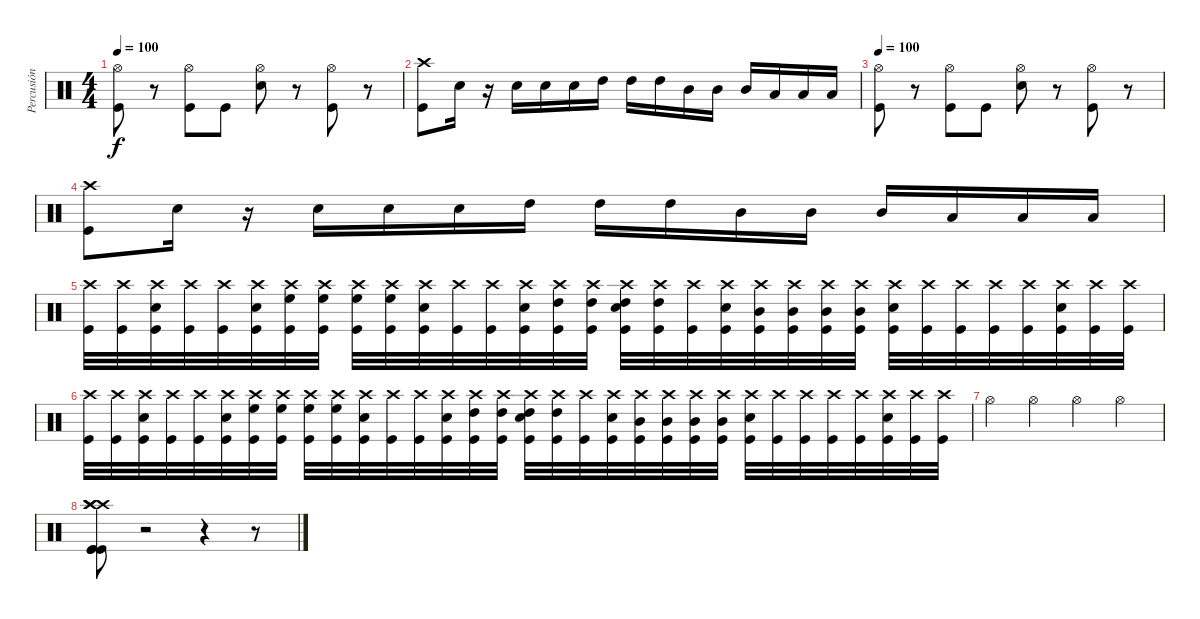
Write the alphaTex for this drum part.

\track ("Percusión" "Percusión") {instrument percussion}
\staff {score}
\articulation defaults
\ts (4 4)
\tempo 100
\clef neutral
\ks c
("Hi-Hat (open)" "Kick (hit)").8{dy f} r.8 ("Hi-Hat (open)" "Kick (hit)").8 "Kick (hit)".8 ("Hi-Hat (open)" "Snare (hit) 2").8 r.8 ("Hi-Hat (open)" "Kick (hit)").8 r.8 |
("Crash high (hit)" "Kick (hit)").8 "Snare (hit) 2".16 r.16 "Snare (hit) 2".16 "Snare (hit) 2".16 "Snare (hit) 2".16 "High Tom (hit)".16 "High Tom (hit)".16 "High Tom (hit)".16 "Mid Tom (hit)".16 "Mid Tom (hit)".16 "Mid Tom (hit)".16 "Low Tom (hit)".16 "Low Tom (hit)".16 "Low Tom (hit)".16 |
\tempo 100
("Hi-Hat (open)" "Kick (hit)").8 r.8 ("Hi-Hat (open)" "Kick (hit)").8 "Kick (hit)".8 ("Hi-Hat (open)" "Snare (hit) 2").8 r.8 ("Hi-Hat (open)" "Kick (hit)").8 r.8 |
("Crash high (hit)" "Kick (hit)").8 "Snare (hit) 2".16 r.16 "Snare (hit) 2".16 "Snare (hit) 2".16 "Snare (hit) 2".16 "High Tom (hit)".16 "High Tom (hit)".16 "High Tom (hit)".16 "Mid Tom (hit)".16 "Mid Tom (hit)".16 "Mid Tom (hit)".16 "Low Tom (hit)".16 "Low Tom (hit)".16 "Low Tom (hit)".16 |
("Crash high (hit)" "Kick (hit)").32 ("Crash high (hit)" "Kick (hit)").32 ("Snare (hit) 2" "Crash high (hit)" "Kick (hit)").32 ("Crash high (hit)" "Kick (hit)").32 ("Crash high (hit)" "Kick (hit)").32 ("Snare (hit) 2" "Crash high (hit)" "Kick (hit)").32 ("High Floor Tom (hit)" "Crash high (hit)" "Kick (hit)").32 ("High Floor Tom (hit)" "Crash high (hit)" "Kick (hit)").32 ("High Floor Tom (hit)" "Crash high (hit)" "Kick (hit)").32 ("High Floor Tom (hit)" "Crash high (hit)" "Kick (hit)").32 ("Snare (hit) 2" "Crash high (hit)" "Kick (hit)").32 ("Crash high (hit)" "Kick (hit)").32 ("Crash high (hit)" "Kick (hit)").32 ("Snare (hit) 2" "Crash high (hit)" "Kick (hit)").32 ("High Tom (hit)" "Crash high (hit)" "Kick (hit)").32 ("High Tom (hit)" "Crash high (hit)" "Kick (hit)").32 ("High Tom (hit)" "Snare (hit) 2" "Crash high (hit)" "Kick (hit)").32 ("High Tom (hit)" "Crash high (hit)" "Kick (hit)").32 ("Crash high (hit)" "Kick (hit)").32 ("Snare (hit) 2" "Crash high (hit)" "Kick (hit)").32 ("Mid Tom (hit)" "Crash high (hit)" "Kick (hit)").32 ("Mid Tom (hit)" "Crash high (hit)" "Kick (hit)").32 ("Mid Tom (hit)" "Crash high (hit)" "Kick (hit)").32 ("Mid Tom (hit)" "Crash high (hit)" "Kick (hit)").32 ("Snare (hit) 2" "Crash high (hit)" "Kick (hit)").32 ("Crash high (hit)" "Kick (hit)").32 ("Crash high (hit)" "Kick (hit)").32 ("Crash high (hit)" "Kick (hit)").32 ("Crash high (hit)" "Kick (hit)").32 ("Snare (hit) 2" "Crash high (hit)" "Kick (hit)").32 ("Crash high (hit)" "Kick (hit)").32 ("Crash high (hit)" "Kick (hit)").32 |
("Crash high (hit)" "Kick (hit)").32 ("Crash high (hit)" "Kick (hit)").32 ("Snare (hit) 2" "Crash high (hit)" "Kick (hit)").32 ("Crash high (hit)" "Kick (hit)").32 ("Crash high (hit)" "Kick (hit)").32 ("Snare (hit) 2" "Crash high (hit)" "Kick (hit)").32 ("High Floor Tom (hit)" "Crash high (hit)" "Kick (hit)").32 ("High Floor Tom (hit)" "Crash high (hit)" "Kick (hit)").32 ("High Floor Tom (hit)" "Crash high (hit)" "Kick (hit)").32 ("High Floor Tom (hit)" "Crash high (hit)" "Kick (hit)").32 ("Snare (hit) 2" "Crash high (hit)" "Kick (hit)").32 ("Crash high (hit)" "Kick (hit)").32 ("Crash high (hit)" "Kick (hit)").32 ("Snare (hit) 2" "Crash high (hit)" "Kick (hit)").32 ("High Tom (hit)" "Crash high (hit)" "Kick (hit)").32 ("High Tom (hit)" "Crash high (hit)" "Kick (hit)").32 ("High Tom (hit)" "Snare (hit) 2" "Crash high (hit)" "Kick (hit)").32 ("High Tom (hit)" "Crash high (hit)" "Kick (hit)").32 ("Crash high (hit)" "Kick (hit)").32 ("Snare (hit) 2" "Crash high (hit)" "Kick (hit)").32 ("Mid Tom (hit)" "Crash high (hit)" "Kick (hit)").32 ("Mid Tom (hit)" "Crash high (hit)" "Kick (hit)").32 ("Mid Tom (hit)" "Crash high (hit)" "Kick (hit)").32 ("Mid Tom (hit)" "Crash high (hit)" "Kick (hit)").32 ("Snare (hit) 2" "Crash high (hit)" "Kick (hit)").32 ("Crash high (hit)" "Kick (hit)").32 ("Crash high (hit)" "Kick (hit)").32 ("Crash high (hit)" "Kick (hit)").32 ("Crash high (hit)" "Kick (hit)").32 ("Snare (hit) 2" "Crash high (hit)" "Kick (hit)").32 ("Crash high (hit)" "Kick (hit)").32 ("Crash high (hit)" "Kick (hit)").32 |
"Hi-Hat (open)".4 "Hi-Hat (open)".4 "Hi-Hat (open)".4 "Hi-Hat (open)".4 |
("Crash high (hit)" "Kick (hit)" "Crash high (hit)" "Kick (hit)" "Crash high (hit)" "Kick (hit)").8 r.2 r.4 r.8
